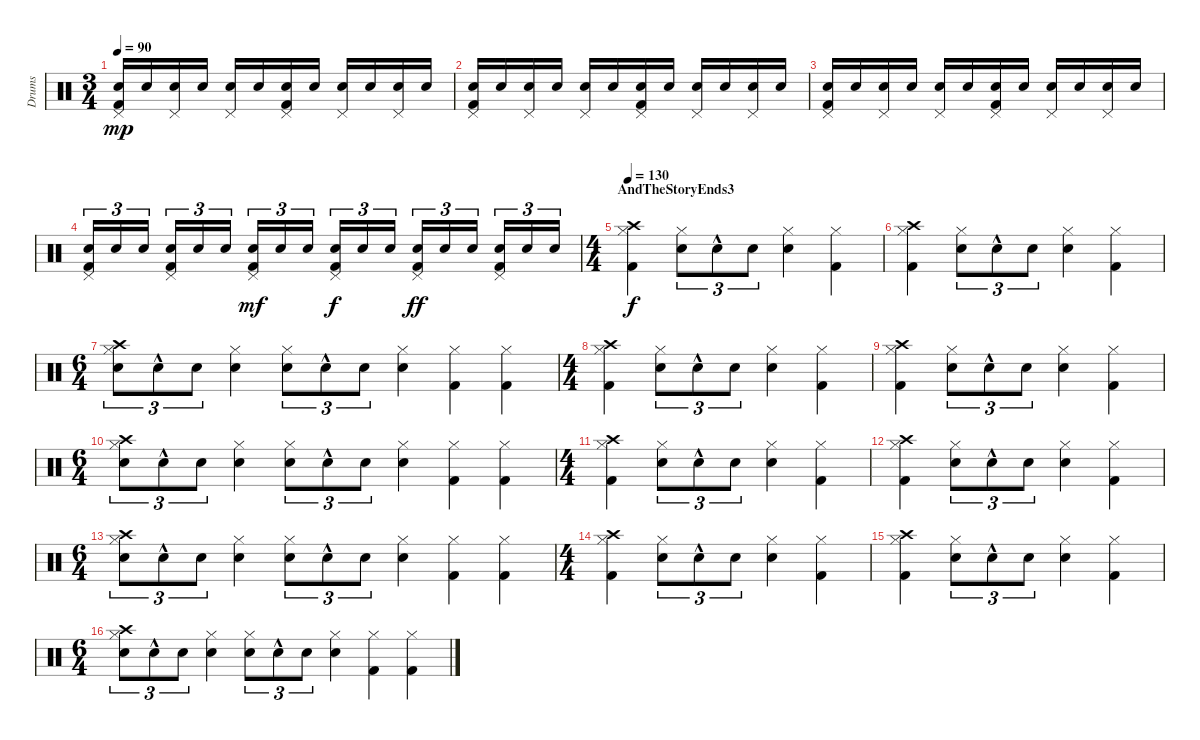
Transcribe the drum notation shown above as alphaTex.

\track ("Drums" "Drums") {instrument percussion}
\staff {score}
\articulation defaults
\ts (3 4)
\tempo 90
\clef neutral
\ks c
("Pedal Hi-Hat (hit)" "Electric Snare (hit)" "Kick (hit) 2").16{dy mp} "Electric Snare (hit)".16 ("Pedal Hi-Hat (hit)" "Electric Snare (hit)").16 "Electric Snare (hit)".16 ("Pedal Hi-Hat (hit)" "Electric Snare (hit)").16 "Electric Snare (hit)".16 ("Pedal Hi-Hat (hit)" "Electric Snare (hit)" "Kick (hit) 2").16 "Electric Snare (hit)".16 ("Pedal Hi-Hat (hit)" "Electric Snare (hit)").16 "Electric Snare (hit)".16 ("Pedal Hi-Hat (hit)" "Electric Snare (hit)").16 "Electric Snare (hit)".16 |
("Pedal Hi-Hat (hit)" "Electric Snare (hit)" "Kick (hit) 2").16 "Electric Snare (hit)".16 ("Pedal Hi-Hat (hit)" "Electric Snare (hit)").16 "Electric Snare (hit)".16 ("Pedal Hi-Hat (hit)" "Electric Snare (hit)").16 "Electric Snare (hit)".16 ("Pedal Hi-Hat (hit)" "Electric Snare (hit)" "Kick (hit) 2").16 "Electric Snare (hit)".16 ("Pedal Hi-Hat (hit)" "Electric Snare (hit)").16 "Electric Snare (hit)".16 ("Pedal Hi-Hat (hit)" "Electric Snare (hit)").16 "Electric Snare (hit)".16 |
("Pedal Hi-Hat (hit)" "Electric Snare (hit)" "Kick (hit) 2").16 "Electric Snare (hit)".16 ("Pedal Hi-Hat (hit)" "Electric Snare (hit)").16 "Electric Snare (hit)".16 ("Pedal Hi-Hat (hit)" "Electric Snare (hit)").16 "Electric Snare (hit)".16 ("Pedal Hi-Hat (hit)" "Electric Snare (hit)" "Kick (hit) 2").16 "Electric Snare (hit)".16 ("Pedal Hi-Hat (hit)" "Electric Snare (hit)").16 "Electric Snare (hit)".16 ("Pedal Hi-Hat (hit)" "Electric Snare (hit)").16 "Electric Snare (hit)".16 |
("Pedal Hi-Hat (hit)" "Electric Snare (hit)" "Kick (hit) 2").16{tu (3 2)} "Electric Snare (hit)".16{tu (3 2)} "Electric Snare (hit)".16{tu (3 2)} ("Pedal Hi-Hat (hit)" "Electric Snare (hit)" "Kick (hit) 2").16{tu (3 2)} "Electric Snare (hit)".16{tu (3 2)} "Electric Snare (hit)".16{tu (3 2)} ("Pedal Hi-Hat (hit)" "Electric Snare (hit)" "Kick (hit) 2").16{tu (3 2) dy mf} "Electric Snare (hit)".16{tu (3 2)} "Electric Snare (hit)".16{tu (3 2)} ("Pedal Hi-Hat (hit)" "Electric Snare (hit)" "Kick (hit) 2").16{tu (3 2) dy f} "Electric Snare (hit)".16{tu (3 2)} "Electric Snare (hit)".16{tu (3 2)} ("Pedal Hi-Hat (hit)" "Electric Snare (hit)" "Kick (hit) 2").16{tu (3 2) dy ff} "Electric Snare (hit)".16{tu (3 2)} "Electric Snare (hit)".16{tu (3 2)} ("Pedal Hi-Hat (hit)" "Electric Snare (hit)" "Kick (hit) 2").16{tu (3 2)} "Electric Snare (hit)".16{tu (3 2)} "Electric Snare (hit)".16{tu (3 2)} |
\ts (4 4)
\section ("" "AndTheStoryEnds3")
\tempo 130
("Kick (hit) 2" "Hi-Hat (closed)" "Crash high (hit)").4{dy f} ("Snare (hit) 2" "Hi-Hat (closed)").8{tu (3 2)} "Snare (hit) 2"{hac}.8{tu (3 2)} "Snare (hit) 2".8{tu (3 2)} ("Snare (hit) 2" "Hi-Hat (closed)").4 ("Kick (hit) 2" "Hi-Hat (closed)").4 |
("Kick (hit) 2" "Hi-Hat (closed)" "Crash high (hit)").4 ("Snare (hit) 2" "Hi-Hat (closed)").8{tu (3 2)} "Snare (hit) 2"{hac}.8{tu (3 2)} "Snare (hit) 2".8{tu (3 2)} ("Snare (hit) 2" "Hi-Hat (closed)").4 ("Kick (hit) 2" "Hi-Hat (closed)").4 |
\ts (6 4)
("Snare (hit) 2" "Hi-Hat (closed)" "Crash high (hit)").8{tu (3 2)} "Snare (hit) 2"{hac}.8{tu (3 2)} "Snare (hit) 2".8{tu (3 2)} ("Snare (hit) 2" "Hi-Hat (closed)").4 ("Snare (hit) 2" "Hi-Hat (closed)").8{tu (3 2)} "Snare (hit) 2"{hac}.8{tu (3 2)} "Snare (hit) 2".8{tu (3 2)} ("Snare (hit) 2" "Hi-Hat (closed)").4 ("Kick (hit) 2" "Hi-Hat (closed)").4 ("Kick (hit) 2" "Hi-Hat (closed)").4 |
\ts (4 4)
("Kick (hit) 2" "Hi-Hat (closed)" "Crash high (hit)").4 ("Snare (hit) 2" "Hi-Hat (closed)").8{tu (3 2)} "Snare (hit) 2"{hac}.8{tu (3 2)} "Snare (hit) 2".8{tu (3 2)} ("Snare (hit) 2" "Hi-Hat (closed)").4 ("Kick (hit) 2" "Hi-Hat (closed)").4 |
("Kick (hit) 2" "Hi-Hat (closed)" "Crash high (hit)").4 ("Snare (hit) 2" "Hi-Hat (closed)").8{tu (3 2)} "Snare (hit) 2"{hac}.8{tu (3 2)} "Snare (hit) 2".8{tu (3 2)} ("Snare (hit) 2" "Hi-Hat (closed)").4 ("Kick (hit) 2" "Hi-Hat (closed)").4 |
\ts (6 4)
("Snare (hit) 2" "Hi-Hat (closed)" "Crash high (hit)").8{tu (3 2)} "Snare (hit) 2"{hac}.8{tu (3 2)} "Snare (hit) 2".8{tu (3 2)} ("Snare (hit) 2" "Hi-Hat (closed)").4 ("Snare (hit) 2" "Hi-Hat (closed)").8{tu (3 2)} "Snare (hit) 2"{hac}.8{tu (3 2)} "Snare (hit) 2".8{tu (3 2)} ("Snare (hit) 2" "Hi-Hat (closed)").4 ("Kick (hit) 2" "Hi-Hat (closed)").4 ("Kick (hit) 2" "Hi-Hat (closed)").4 |
\ts (4 4)
("Kick (hit) 2" "Hi-Hat (closed)" "Crash high (hit)").4 ("Snare (hit) 2" "Hi-Hat (closed)").8{tu (3 2)} "Snare (hit) 2"{hac}.8{tu (3 2)} "Snare (hit) 2".8{tu (3 2)} ("Snare (hit) 2" "Hi-Hat (closed)").4 ("Kick (hit) 2" "Hi-Hat (closed)").4 |
("Kick (hit) 2" "Hi-Hat (closed)" "Crash high (hit)").4 ("Snare (hit) 2" "Hi-Hat (closed)").8{tu (3 2)} "Snare (hit) 2"{hac}.8{tu (3 2)} "Snare (hit) 2".8{tu (3 2)} ("Snare (hit) 2" "Hi-Hat (closed)").4 ("Kick (hit) 2" "Hi-Hat (closed)").4 |
\ts (6 4)
("Snare (hit) 2" "Hi-Hat (closed)" "Crash high (hit)").8{tu (3 2)} "Snare (hit) 2"{hac}.8{tu (3 2)} "Snare (hit) 2".8{tu (3 2)} ("Snare (hit) 2" "Hi-Hat (closed)").4 ("Snare (hit) 2" "Hi-Hat (closed)").8{tu (3 2)} "Snare (hit) 2"{hac}.8{tu (3 2)} "Snare (hit) 2".8{tu (3 2)} ("Snare (hit) 2" "Hi-Hat (closed)").4 ("Kick (hit) 2" "Hi-Hat (closed)").4 ("Kick (hit) 2" "Hi-Hat (closed)").4 |
\ts (4 4)
("Kick (hit) 2" "Hi-Hat (closed)" "Crash high (hit)").4 ("Snare (hit) 2" "Hi-Hat (closed)").8{tu (3 2)} "Snare (hit) 2"{hac}.8{tu (3 2)} "Snare (hit) 2".8{tu (3 2)} ("Snare (hit) 2" "Hi-Hat (closed)").4 ("Kick (hit) 2" "Hi-Hat (closed)").4 |
("Kick (hit) 2" "Hi-Hat (closed)" "Crash high (hit)").4 ("Snare (hit) 2" "Hi-Hat (closed)").8{tu (3 2)} "Snare (hit) 2"{hac}.8{tu (3 2)} "Snare (hit) 2".8{tu (3 2)} ("Snare (hit) 2" "Hi-Hat (closed)").4 ("Kick (hit) 2" "Hi-Hat (closed)").4 |
\ts (6 4)
("Snare (hit) 2" "Hi-Hat (closed)" "Crash high (hit)").8{tu (3 2)} "Snare (hit) 2"{hac}.8{tu (3 2)} "Snare (hit) 2".8{tu (3 2)} ("Snare (hit) 2" "Hi-Hat (closed)").4 ("Snare (hit) 2" "Hi-Hat (closed)").8{tu (3 2)} "Snare (hit) 2"{hac}.8{tu (3 2)} "Snare (hit) 2".8{tu (3 2)} ("Snare (hit) 2" "Hi-Hat (closed)").4 ("Kick (hit) 2" "Hi-Hat (closed)").4 ("Kick (hit) 2" "Hi-Hat (closed)").4
